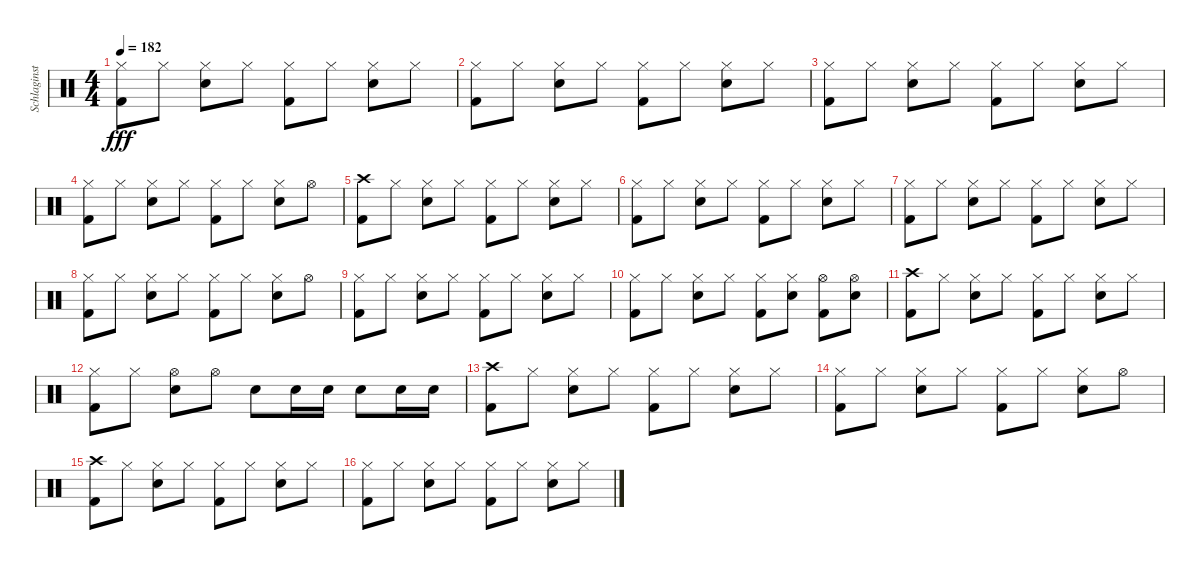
\track ("Schlaginstrumente - Auswahl" "Schlaginst") {instrument percussion}
\staff {score}
\articulation defaults
\ts (4 4)
\tempo 182
\clef neutral
\ks c
("Kick (hit) 2" "Hi-Hat (closed)").8{dy fff} "Hi-Hat (closed)".8 ("Snare (hit) 2" "Hi-Hat (closed)").8 "Hi-Hat (closed)".8 ("Kick (hit) 2" "Hi-Hat (closed)").8 "Hi-Hat (closed)".8 ("Snare (hit) 2" "Hi-Hat (closed)").8 "Hi-Hat (closed)".8 |
("Kick (hit) 2" "Hi-Hat (closed)").8 "Hi-Hat (closed)".8 ("Snare (hit) 2" "Hi-Hat (closed)").8 "Hi-Hat (closed)".8 ("Kick (hit) 2" "Hi-Hat (closed)").8 "Hi-Hat (closed)".8 ("Snare (hit) 2" "Hi-Hat (closed)").8 "Hi-Hat (closed)".8 |
("Kick (hit) 2" "Hi-Hat (closed)").8 "Hi-Hat (closed)".8 ("Snare (hit) 2" "Hi-Hat (closed)").8 "Hi-Hat (closed)".8 ("Kick (hit) 2" "Hi-Hat (closed)").8 "Hi-Hat (closed)".8 ("Snare (hit) 2" "Hi-Hat (closed)").8 "Hi-Hat (closed)".8 |
("Kick (hit) 2" "Hi-Hat (closed)").8 "Hi-Hat (closed)".8 ("Snare (hit) 2" "Hi-Hat (closed)").8 "Hi-Hat (closed)".8 ("Kick (hit) 2" "Hi-Hat (closed)").8 "Hi-Hat (closed)".8 ("Snare (hit) 2" "Hi-Hat (closed)").8 "Hi-Hat (open)".8 |
("Kick (hit) 2" "Crash high (hit)").8 "Hi-Hat (closed)".8 ("Snare (hit) 2" "Hi-Hat (closed)").8 "Hi-Hat (closed)".8 ("Kick (hit) 2" "Hi-Hat (closed)").8 "Hi-Hat (closed)".8 ("Snare (hit) 2" "Hi-Hat (closed)").8 "Hi-Hat (closed)".8 |
("Kick (hit) 2" "Hi-Hat (closed)").8 "Hi-Hat (closed)".8 ("Snare (hit) 2" "Hi-Hat (closed)").8 "Hi-Hat (closed)".8 ("Kick (hit) 2" "Hi-Hat (closed)").8 "Hi-Hat (closed)".8 ("Snare (hit) 2" "Hi-Hat (closed)").8 "Hi-Hat (closed)".8 |
("Kick (hit) 2" "Hi-Hat (closed)").8 "Hi-Hat (closed)".8 ("Snare (hit) 2" "Hi-Hat (closed)").8 "Hi-Hat (closed)".8 ("Kick (hit) 2" "Hi-Hat (closed)").8 "Hi-Hat (closed)".8 ("Snare (hit) 2" "Hi-Hat (closed)").8 "Hi-Hat (closed)".8 |
("Kick (hit) 2" "Hi-Hat (closed)").8 "Hi-Hat (closed)".8 ("Snare (hit) 2" "Hi-Hat (closed)").8 "Hi-Hat (closed)".8 ("Kick (hit) 2" "Hi-Hat (closed)").8 "Hi-Hat (closed)".8 ("Snare (hit) 2" "Hi-Hat (closed)").8 "Hi-Hat (open)".8 |
("Kick (hit) 2" "Hi-Hat (closed)").8 "Hi-Hat (closed)".8 ("Snare (hit) 2" "Hi-Hat (closed)").8 "Hi-Hat (closed)".8 ("Kick (hit) 2" "Hi-Hat (closed)").8 "Hi-Hat (closed)".8 ("Snare (hit) 2" "Hi-Hat (closed)").8 "Hi-Hat (closed)".8 |
("Kick (hit) 2" "Hi-Hat (closed)").8 "Hi-Hat (closed)".8 ("Snare (hit) 2" "Hi-Hat (closed)").8 "Hi-Hat (closed)".8 ("Kick (hit) 2" "Hi-Hat (closed)").8 ("Snare (hit) 2" "Hi-Hat (closed)").8 ("Kick (hit) 2" "Hi-Hat (open)").8 ("Snare (hit) 2" "Hi-Hat (open)").8 |
("Kick (hit) 2" "Crash high (hit)").8 "Hi-Hat (closed)".8 ("Snare (hit) 2" "Hi-Hat (closed)").8 "Hi-Hat (closed)".8 ("Kick (hit) 2" "Hi-Hat (closed)").8 "Hi-Hat (closed)".8 ("Snare (hit) 2" "Hi-Hat (closed)").8 "Hi-Hat (closed)".8 |
("Kick (hit) 2" "Hi-Hat (closed)").8 "Hi-Hat (closed)".8 ("Snare (hit) 2" "Hi-Hat (open)").8 "Hi-Hat (open)".8 "Snare (hit) 2".8 "Snare (hit) 2".16 "Snare (hit) 2".16 "Snare (hit) 2".8 "Snare (hit) 2".16 "Snare (hit) 2".16 |
("Kick (hit) 2" "Crash high (hit)").8 "Hi-Hat (closed)".8 ("Snare (hit) 2" "Hi-Hat (closed)").8 "Hi-Hat (closed)".8 ("Kick (hit) 2" "Hi-Hat (closed)").8 "Hi-Hat (closed)".8 ("Snare (hit) 2" "Hi-Hat (closed)").8 "Hi-Hat (closed)".8 |
("Kick (hit) 2" "Hi-Hat (closed)").8 "Hi-Hat (closed)".8 ("Snare (hit) 2" "Hi-Hat (closed)").8 "Hi-Hat (closed)".8 ("Kick (hit) 2" "Hi-Hat (closed)").8 "Hi-Hat (closed)".8 ("Snare (hit) 2" "Hi-Hat (closed)").8 "Hi-Hat (open)".8 |
("Kick (hit) 2" "Crash high (hit)").8 "Hi-Hat (closed)".8 ("Snare (hit) 2" "Hi-Hat (closed)").8 "Hi-Hat (closed)".8 ("Kick (hit) 2" "Hi-Hat (closed)").8 "Hi-Hat (closed)".8 ("Snare (hit) 2" "Hi-Hat (closed)").8 "Hi-Hat (closed)".8 |
("Kick (hit) 2" "Hi-Hat (closed)").8 "Hi-Hat (closed)".8 ("Snare (hit) 2" "Hi-Hat (closed)").8 "Hi-Hat (closed)".8 ("Kick (hit) 2" "Hi-Hat (closed)").8 "Hi-Hat (closed)".8 ("Snare (hit) 2" "Hi-Hat (closed)").8 "Hi-Hat (closed)".8
